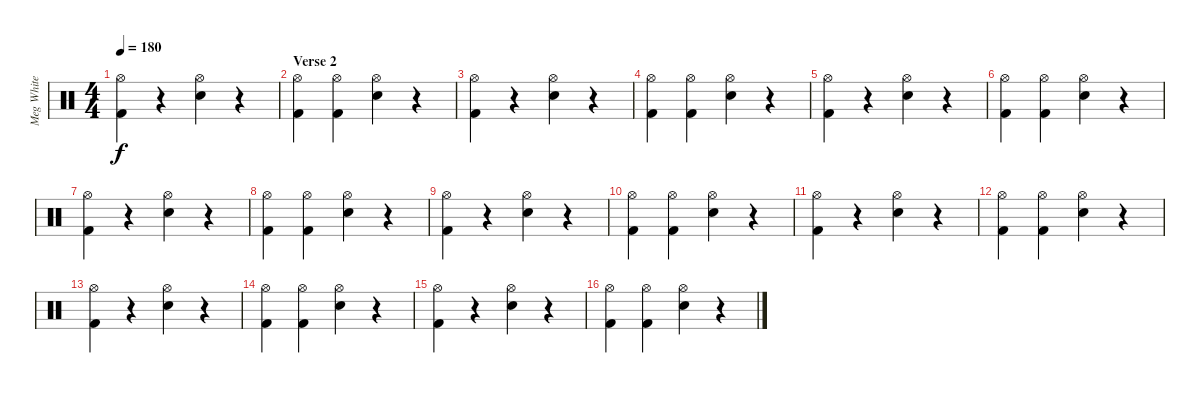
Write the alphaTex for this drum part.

\track ("Meg White" "Meg White") {instrument percussion}
\staff {score}
\articulation defaults
\ts (4 4)
\tempo 180
\clef neutral
\ks c
("Hi-Hat (open)" "Kick (hit) 2").4{dy f} r.4 ("Hi-Hat (open)" "Snare (hit) 2").4 r.4 |
\section ("" "Verse 2")
("Hi-Hat (open)" "Kick (hit) 2").4 ("Hi-Hat (open)" "Kick (hit) 2").4 ("Hi-Hat (open)" "Snare (hit) 2").4 r.4 |
("Hi-Hat (open)" "Kick (hit) 2").4 r.4 ("Hi-Hat (open)" "Snare (hit) 2").4 r.4 |
("Hi-Hat (open)" "Kick (hit) 2").4 ("Hi-Hat (open)" "Kick (hit) 2").4 ("Hi-Hat (open)" "Snare (hit) 2").4 r.4 |
("Hi-Hat (open)" "Kick (hit) 2").4 r.4 ("Hi-Hat (open)" "Snare (hit) 2").4 r.4 |
("Hi-Hat (open)" "Kick (hit) 2").4 ("Hi-Hat (open)" "Kick (hit) 2").4 ("Hi-Hat (open)" "Snare (hit) 2").4 r.4 |
("Hi-Hat (open)" "Kick (hit) 2").4 r.4 ("Hi-Hat (open)" "Snare (hit) 2").4 r.4 |
("Hi-Hat (open)" "Kick (hit) 2").4 ("Hi-Hat (open)" "Kick (hit) 2").4 ("Hi-Hat (open)" "Snare (hit) 2").4 r.4 |
("Hi-Hat (open)" "Kick (hit) 2").4 r.4 ("Hi-Hat (open)" "Snare (hit) 2").4 r.4 |
("Hi-Hat (open)" "Kick (hit) 2").4 ("Hi-Hat (open)" "Kick (hit) 2").4 ("Hi-Hat (open)" "Snare (hit) 2").4 r.4 |
("Hi-Hat (open)" "Kick (hit) 2").4 r.4 ("Hi-Hat (open)" "Snare (hit) 2").4 r.4 |
("Hi-Hat (open)" "Kick (hit) 2").4 ("Hi-Hat (open)" "Kick (hit) 2").4 ("Hi-Hat (open)" "Snare (hit) 2").4 r.4 |
("Hi-Hat (open)" "Kick (hit) 2").4 r.4 ("Hi-Hat (open)" "Snare (hit) 2").4 r.4 |
("Hi-Hat (open)" "Kick (hit) 2").4 ("Hi-Hat (open)" "Kick (hit) 2").4 ("Hi-Hat (open)" "Snare (hit) 2").4 r.4 |
("Hi-Hat (open)" "Kick (hit) 2").4 r.4 ("Hi-Hat (open)" "Snare (hit) 2").4 r.4 |
("Hi-Hat (open)" "Kick (hit) 2").4 ("Hi-Hat (open)" "Kick (hit) 2").4 ("Hi-Hat (open)" "Snare (hit) 2").4 r.4
